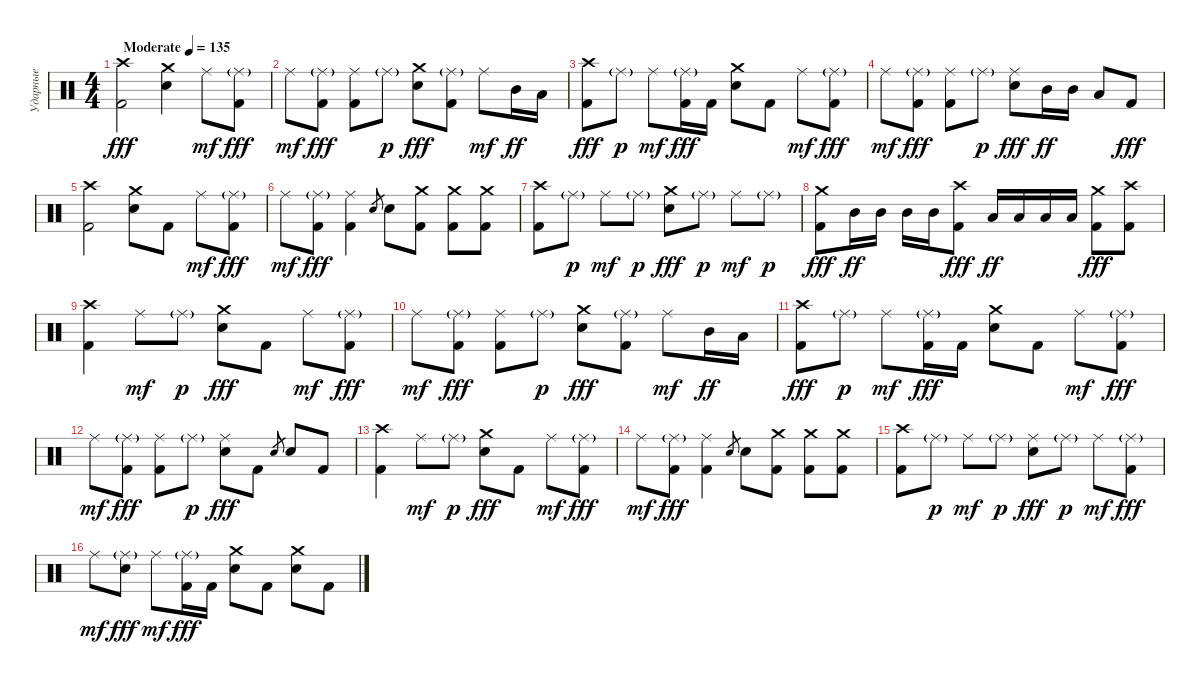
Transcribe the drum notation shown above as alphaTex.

\track ("Ударные" "Ударные") {instrument percussion}
\staff {score}
\articulation defaults
\ts (4 4)
\tempo (135 "Moderate")
\clef neutral
\ks c
("Crash high (hit)" "Kick (hit) 2").2{dy fff} ("Crash medium (hit)" "Electric Snare (hit)").4 "Ride (middle)".8{dy mf} ("Ride (middle)"{g} "Kick (hit) 2").8{dy fff} |
"Ride (middle)".8{dy mf} ("Ride (middle)"{g} "Kick (hit) 2").8{dy fff} ("Ride (middle)" "Kick (hit) 2").8 "Ride (middle)"{g}.8{dy p} ("Crash medium (hit)" "Electric Snare (hit)").8{dy fff} ("Ride (middle)"{g} "Kick (hit) 2").8 "Ride (middle)".8{dy mf} "Mid Tom (hit)".16{dy ff} "Low Tom (hit)".16 |
("Crash high (hit)" "Kick (hit) 2").8{dy fff} "Ride (middle)"{g}.8{dy p} "Ride (middle)".8{dy mf} ("Ride (middle)"{g} "Kick (hit) 2").16{dy fff} "Kick (hit) 2".16 ("Crash medium (hit)" "Electric Snare (hit)").8 "Kick (hit) 2".8 "Ride (middle)".8{dy mf} ("Ride (middle)"{g} "Kick (hit) 2").8{dy fff} |
"Ride (middle)".8{dy mf} ("Ride (middle)"{g} "Kick (hit) 2").8{dy fff} ("Ride (middle)" "Kick (hit) 2").8 "Ride (middle)"{g}.8{dy p} ("Ride (middle)" "Electric Snare (hit)").8{dy fff} "Mid Tom (hit)".16{dy ff} "Mid Tom (hit)".16 "Low Tom (hit)".8 "Kick (hit) 2".8{dy fff} |
("Crash high (hit)" "Kick (hit) 2").2 ("Crash medium (hit)" "Electric Snare (hit)").8 "Kick (hit) 2".8 "Ride (middle)".8{dy mf} ("Ride (middle)"{g} "Kick (hit) 2").8{dy fff} |
"Ride (middle)".8{dy mf} ("Ride (middle)"{g} "Kick (hit) 2").8{dy fff} ("Ride (middle)" "Kick (hit) 2").4 "Electric Snare (hit)".8{gr} "Electric Snare (hit)".8 ("Crash medium (hit)" "Kick (hit) 2").8 ("Crash medium (hit)" "Kick (hit) 2").8 ("Crash medium (hit)" "Kick (hit) 2").8 |
("Crash high (hit)" "Kick (hit) 2").8 "Ride (middle)"{g}.8{dy p} "Ride (middle)".8{dy mf} "Ride (middle)"{g}.8{dy p} ("Crash medium (hit)" "Electric Snare (hit)").8{dy fff} "Ride (middle)"{g}.8{dy p} "Ride (middle)".8{dy mf} "Ride (middle)"{g}.8{dy p} |
("Crash medium (hit)" "Kick (hit) 2").8{dy fff} "Mid Tom (hit)".16{dy ff} "Mid Tom (hit)".16 "Mid Tom (hit)".16 "Mid Tom (hit)".16 ("Crash high (hit)" "Kick (hit) 2").8{dy fff} "Low Tom (hit)".16{dy ff} "Low Tom (hit)".16 "Low Tom (hit)".16 "Low Tom (hit)".16 ("Crash medium (hit)" "Kick (hit) 2").8{dy fff} ("Crash high (hit)" "Kick (hit) 2").8 |
("Crash high (hit)" "Kick (hit) 2").4 "Ride (middle)".8{dy mf} "Ride (middle)"{g}.8{dy p} ("Crash medium (hit)" "Electric Snare (hit)").8{dy fff} "Kick (hit) 2".8 "Ride (middle)".8{dy mf} ("Ride (middle)"{g} "Kick (hit) 2").8{dy fff} |
"Ride (middle)".8{dy mf} ("Ride (middle)"{g} "Kick (hit) 2").8{dy fff} ("Ride (middle)" "Kick (hit) 2").8 "Ride (middle)"{g}.8{dy p} ("Crash medium (hit)" "Electric Snare (hit)").8{dy fff} ("Ride (middle)"{g} "Kick (hit) 2").8 "Ride (middle)".8{dy mf} "Mid Tom (hit)".16{dy ff} "Low Tom (hit)".16 |
("Crash high (hit)" "Kick (hit) 2").8{dy fff} "Ride (middle)"{g}.8{dy p} "Ride (middle)".8{dy mf} ("Ride (middle)"{g} "Kick (hit) 2").16{dy fff} "Kick (hit) 2".16 ("Crash medium (hit)" "Electric Snare (hit)").8 "Kick (hit) 2".8 "Ride (middle)".8{dy mf} ("Ride (middle)"{g} "Kick (hit) 2").8{dy fff} |
"Ride (middle)".8{dy mf} ("Ride (middle)"{g} "Kick (hit) 2").8{dy fff} ("Ride (middle)" "Kick (hit) 2").8 "Ride (middle)"{g}.8{dy p} ("Ride (middle)" "Electric Snare (hit)").8{dy fff} "Kick (hit) 2".8 "Electric Snare (hit)".8{gr} "Electric Snare (hit)".8 "Kick (hit) 2".8 |
("Crash high (hit)" "Kick (hit) 2").4 "Ride (middle)".8{dy mf} "Ride (middle)"{g}.8{dy p} ("Crash medium (hit)" "Electric Snare (hit)").8{dy fff} "Kick (hit) 2".8 "Ride (middle)".8{dy mf} ("Ride (middle)"{g} "Kick (hit) 2").8{dy fff} |
"Ride (middle)".8{dy mf} ("Ride (middle)"{g} "Kick (hit) 2").8{dy fff} ("Ride (middle)" "Kick (hit) 2").4 "Electric Snare (hit)".8{gr} "Electric Snare (hit)".8 ("Crash medium (hit)" "Kick (hit) 2").8 ("Crash medium (hit)" "Kick (hit) 2").8 ("Crash medium (hit)" "Kick (hit) 2").8 |
("Crash high (hit)" "Kick (hit) 2").8 "Ride (middle)"{g}.8{dy p} "Ride (middle)".8{dy mf} "Ride (middle)"{g}.8{dy p} ("Ride (middle)" "Electric Snare (hit)").8{dy fff} "Ride (middle)"{g}.8{dy p} "Ride (middle)".8{dy mf} ("Ride (middle)"{g} "Kick (hit) 2").8{dy fff} |
"Ride (middle)".8{dy mf} ("Ride (middle)"{g} "Electric Snare (hit)").8{dy fff} "Ride (middle)".8{dy mf} ("Ride (middle)"{g} "Kick (hit) 2").16{dy fff} "Kick (hit) 2".16 ("Crash medium (hit)" "Electric Snare (hit)").8 "Kick (hit) 2".8 ("Crash medium (hit)" "Electric Snare (hit)").8 "Kick (hit) 2".8
